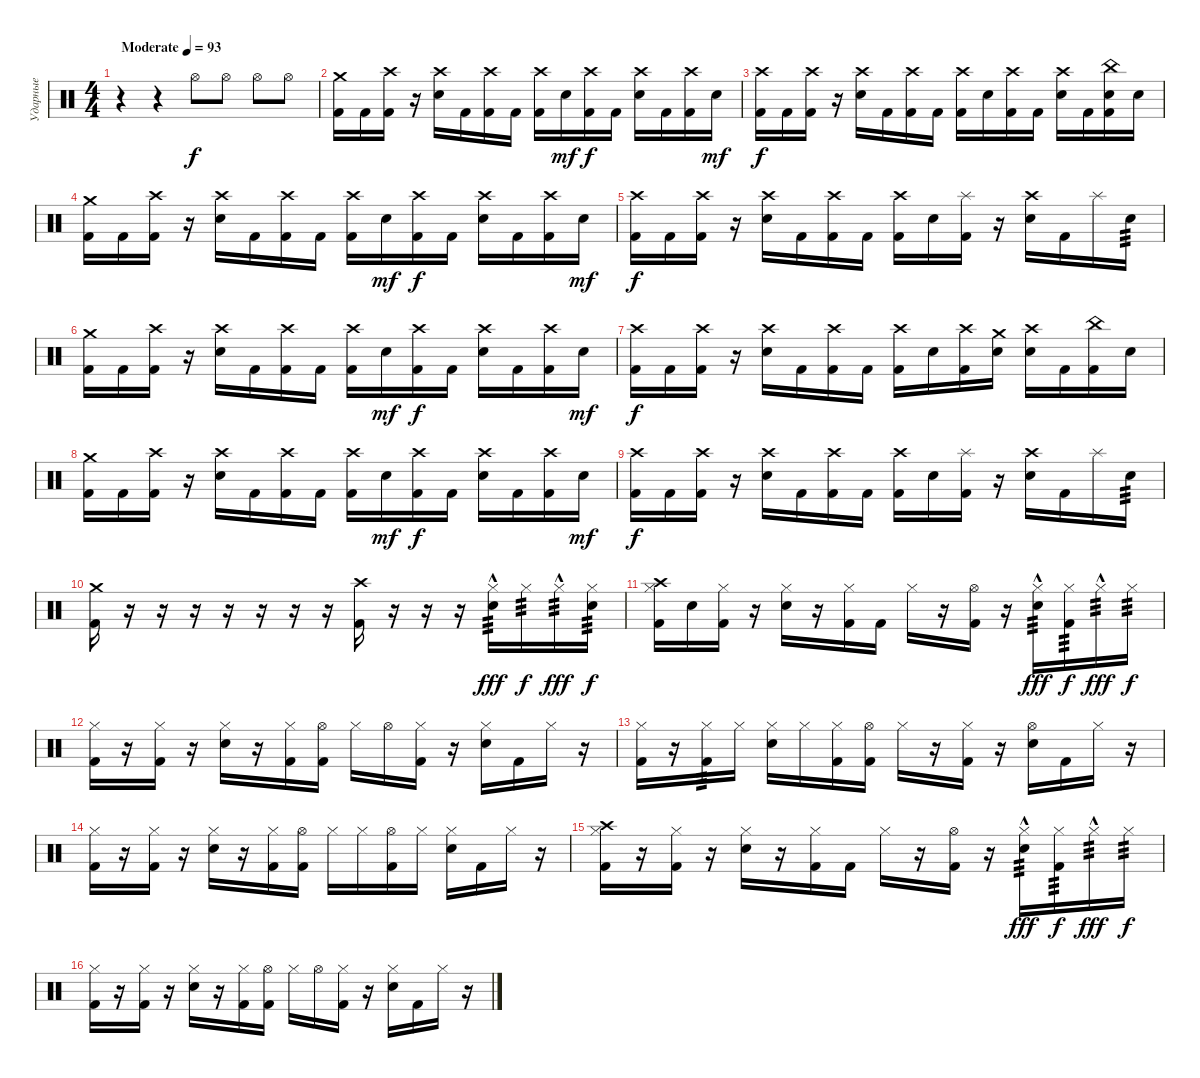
\track ("Ударные" "Ударные") {instrument percussion}
\staff {score}
\articulation defaults
\ts (4 4)
\tempo (93 "Moderate")
\clef neutral
\ks c
r.4{dy f} r.4 "Hi-Hat (open)".8 "Hi-Hat (open)".8 "Hi-Hat (open)".8 "Hi-Hat (open)".8 |
("Crash medium (hit)" "Kick (hit) 2").16 "Kick (hit) 2".16 ("Crash high (hit)" "Kick (hit) 2").16 r.16 ("Crash high (hit)" "Electric Snare (hit)").16 "Kick (hit) 2".16 ("Crash high (hit)" "Kick (hit) 2").16 "Kick (hit) 2".16 ("Crash high (hit)" "Kick (hit) 2").16 "Electric Snare (hit)".16{dy mf} ("Crash high (hit)" "Kick (hit) 2").16{dy f} "Kick (hit) 2".16 ("Crash high (hit)" "Electric Snare (hit)").16 "Kick (hit) 2".16 ("Crash high (hit)" "Kick (hit) 2").16 "Electric Snare (hit)".16{dy mf} |
("Crash high (hit)" "Kick (hit) 2").16{dy f} "Kick (hit) 2".16 ("Crash high (hit)" "Kick (hit) 2").16 r.16 ("Crash high (hit)" "Electric Snare (hit)").16 "Kick (hit) 2".16 ("Crash high (hit)" "Kick (hit) 2").16 "Kick (hit) 2".16 ("Crash high (hit)" "Kick (hit) 2").16 "Electric Snare (hit)".16 ("Crash high (hit)" "Kick (hit) 2").16 "Kick (hit) 2".16 ("Crash high (hit)" "Electric Snare (hit)").16 "Kick (hit) 2".16 ("China (hit)" "Electric Snare (hit)" "Kick (hit) 2").16 "Electric Snare (hit)".16 |
("Crash medium (hit)" "Kick (hit) 2").16 "Kick (hit) 2".16 ("Crash high (hit)" "Kick (hit) 2").16 r.16 ("Crash high (hit)" "Electric Snare (hit)").16 "Kick (hit) 2".16 ("Crash high (hit)" "Kick (hit) 2").16 "Kick (hit) 2".16 ("Crash high (hit)" "Kick (hit) 2").16 "Electric Snare (hit)".16{dy mf} ("Crash high (hit)" "Kick (hit) 2").16{dy f} "Kick (hit) 2".16 ("Crash high (hit)" "Electric Snare (hit)").16 "Kick (hit) 2".16 ("Crash high (hit)" "Kick (hit) 2").16 "Electric Snare (hit)".16{dy mf} |
("Crash high (hit)" "Kick (hit) 2").16{dy f} "Kick (hit) 2".16 ("Crash high (hit)" "Kick (hit) 2").16 r.16 ("Crash high (hit)" "Electric Snare (hit)").16 "Kick (hit) 2".16 ("Crash high (hit)" "Kick (hit) 2").16 "Kick (hit) 2".16 ("Crash high (hit)" "Kick (hit) 2").16 "Electric Snare (hit)".16 ("Splash (hit)" "Kick (hit) 2").16 r.16 ("Crash high (hit)" "Electric Snare (hit)").16 "Kick (hit) 2".16 "Splash (hit)".16 "Electric Snare (hit)".16{tp 3} |
("Crash medium (hit)" "Kick (hit) 2").16 "Kick (hit) 2".16 ("Crash high (hit)" "Kick (hit) 2").16 r.16 ("Crash high (hit)" "Electric Snare (hit)").16 "Kick (hit) 2".16 ("Crash high (hit)" "Kick (hit) 2").16 "Kick (hit) 2".16 ("Crash high (hit)" "Kick (hit) 2").16 "Electric Snare (hit)".16{dy mf} ("Crash high (hit)" "Kick (hit) 2").16{dy f} "Kick (hit) 2".16 ("Crash high (hit)" "Electric Snare (hit)").16 "Kick (hit) 2".16 ("Crash high (hit)" "Kick (hit) 2").16 "Electric Snare (hit)".16{dy mf} |
("Crash high (hit)" "Kick (hit) 2").16{dy f} "Kick (hit) 2".16 ("Crash high (hit)" "Kick (hit) 2").16 r.16 ("Crash high (hit)" "Electric Snare (hit)").16 "Kick (hit) 2".16 ("Crash high (hit)" "Kick (hit) 2").16 "Kick (hit) 2".16 ("Crash high (hit)" "Kick (hit) 2").16 "Electric Snare (hit)".16 ("Crash high (hit)" "Kick (hit) 2").16 ("Crash medium (hit)" "Electric Snare (hit)").16 ("Crash high (hit)" "Electric Snare (hit)").16 "Kick (hit) 2".16 ("China (hit)" "Kick (hit) 2").16 "Electric Snare (hit)".16 |
("Crash medium (hit)" "Kick (hit) 2").16 "Kick (hit) 2".16 ("Crash high (hit)" "Kick (hit) 2").16 r.16 ("Crash high (hit)" "Electric Snare (hit)").16 "Kick (hit) 2".16 ("Crash high (hit)" "Kick (hit) 2").16 "Kick (hit) 2".16 ("Crash high (hit)" "Kick (hit) 2").16 "Electric Snare (hit)".16{dy mf} ("Crash high (hit)" "Kick (hit) 2").16{dy f} "Kick (hit) 2".16 ("Crash high (hit)" "Electric Snare (hit)").16 "Kick (hit) 2".16 ("Crash high (hit)" "Kick (hit) 2").16 "Electric Snare (hit)".16{dy mf} |
("Crash high (hit)" "Kick (hit) 2").16{dy f} "Kick (hit) 2".16 ("Crash high (hit)" "Kick (hit) 2").16 r.16 ("Crash high (hit)" "Electric Snare (hit)").16 "Kick (hit) 2".16 ("Crash high (hit)" "Kick (hit) 2").16 "Kick (hit) 2".16 ("Crash high (hit)" "Kick (hit) 2").16 "Electric Snare (hit)".16 ("Splash (hit)" "Kick (hit) 2").16 r.16 ("Crash high (hit)" "Electric Snare (hit)").16 "Kick (hit) 2".16 "Splash (hit)".16 "Electric Snare (hit)".16{tp 3} |
("Crash medium (hit)" "Kick (hit) 2").16 r.16 r.16 r.16 r.16 r.16 r.16 r.16 ("Crash high (hit)" "Kick (hit) 2").16 r.16 r.16 r.16 ("Hi-Hat (closed)"{hac} "Electric Snare (hit)").16{tp 3 dy fff} "Hi-Hat (closed)".16{tp 3 dy f} "Hi-Hat (closed)"{hac}.16{tp 3 dy fff} ("Hi-Hat (closed)" "Electric Snare (hit)").16{tp 3 dy f} |
("Crash high (hit)" "Hi-Hat (closed)" "Kick (hit) 2").16 "Electric Snare (hit)".16 ("Hi-Hat (closed)" "Kick (hit) 2").16 r.16 ("Hi-Hat (closed)" "Electric Snare (hit)").16 r.16 ("Hi-Hat (closed)" "Kick (hit) 2").16 "Kick (hit) 2".16 "Hi-Hat (closed)".16 r.16 ("Hi-Hat (open)" "Kick (hit) 2").16 r.16 ("Hi-Hat (closed)"{hac} "Electric Snare (hit)").16{tp 3 dy fff} ("Hi-Hat (closed)" "Kick (hit) 2").16{tp 3 dy f} "Hi-Hat (closed)"{hac}.16{tp 3 dy fff} "Hi-Hat (closed)".16{tp 3 dy f} |
("Hi-Hat (closed)" "Kick (hit) 2").16 r.16 ("Hi-Hat (closed)" "Kick (hit) 2").16 r.16 ("Hi-Hat (closed)" "Electric Snare (hit)").16 r.16 ("Hi-Hat (closed)" "Kick (hit) 2").16 ("Hi-Hat (open)" "Kick (hit) 2").16 "Hi-Hat (closed)".16 "Hi-Hat (open)".16 ("Hi-Hat (closed)" "Kick (hit) 2").16 r.16 ("Hi-Hat (closed)" "Electric Snare (hit)").16 "Kick (hit) 2".16 "Hi-Hat (closed)".16 r.16 |
("Hi-Hat (closed)" "Kick (hit) 2").16 r.16 ("Hi-Hat (closed)" "Kick (hit) 2").16{tp 3} "Hi-Hat (closed)".16 ("Hi-Hat (closed)" "Electric Snare (hit)").16 "Hi-Hat (closed)".16 ("Hi-Hat (closed)" "Kick (hit) 2").16 ("Hi-Hat (open)" "Kick (hit) 2").16 "Hi-Hat (closed)".16 r.16 ("Hi-Hat (closed)" "Kick (hit) 2").16 r.16 ("Hi-Hat (open)" "Electric Snare (hit)").16 "Kick (hit) 2".16 "Hi-Hat (closed)".16 r.16 |
("Hi-Hat (closed)" "Kick (hit) 2").16 r.16 ("Hi-Hat (closed)" "Kick (hit) 2").16 r.16 ("Hi-Hat (closed)" "Electric Snare (hit)").16 r.16 ("Hi-Hat (closed)" "Kick (hit) 2").16 ("Hi-Hat (open)" "Kick (hit) 2").16 "Hi-Hat (closed)".16 "Hi-Hat (closed)".16 ("Hi-Hat (open)" "Kick (hit) 2").16 "Hi-Hat (closed)".16 ("Hi-Hat (closed)" "Electric Snare (hit)").16 "Kick (hit) 2".16 "Hi-Hat (closed)".16 r.16 |
("Crash high (hit)" "Hi-Hat (closed)" "Kick (hit) 2").16 r.16 ("Hi-Hat (closed)" "Kick (hit) 2").16 r.16 ("Hi-Hat (closed)" "Electric Snare (hit)").16 r.16 ("Hi-Hat (closed)" "Kick (hit) 2").16 "Kick (hit) 2".16 "Hi-Hat (closed)".16 r.16 ("Hi-Hat (open)" "Kick (hit) 2").16 r.16 ("Hi-Hat (closed)"{hac} "Electric Snare (hit)").16{tp 3 dy fff} ("Hi-Hat (closed)" "Kick (hit) 2").16{tp 3 dy f} "Hi-Hat (closed)"{hac}.16{tp 3 dy fff} "Hi-Hat (closed)".16{tp 3 dy f} |
("Hi-Hat (closed)" "Kick (hit) 2").16 r.16 ("Hi-Hat (closed)" "Kick (hit) 2").16 r.16 ("Hi-Hat (closed)" "Electric Snare (hit)").16 r.16 ("Hi-Hat (closed)" "Kick (hit) 2").16 ("Hi-Hat (open)" "Kick (hit) 2").16 "Hi-Hat (closed)".16 "Hi-Hat (open)".16 ("Hi-Hat (closed)" "Kick (hit) 2").16 r.16 ("Hi-Hat (closed)" "Electric Snare (hit)").16 "Kick (hit) 2".16 "Hi-Hat (closed)".16 r.16
